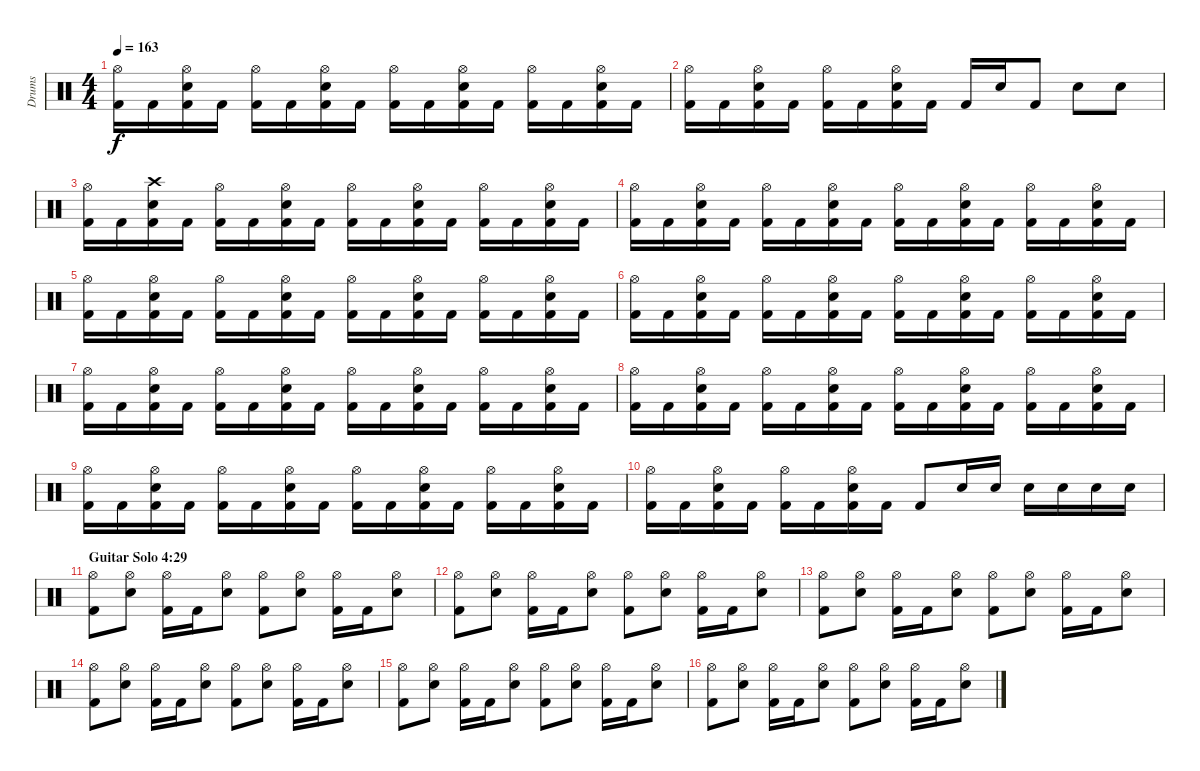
\track ("Drums" "Drums") {instrument percussion}
\staff {score}
\articulation defaults
\ts (4 4)
\tempo 163
\clef neutral
\ks c
("Hi-Hat (open)" "Kick (hit) 2").16{dy f} "Kick (hit) 2".16 ("Hi-Hat (open)" "Kick (hit) 2" "Snare (hit) 2").16 "Kick (hit) 2".16 ("Hi-Hat (open)" "Kick (hit) 2").16 "Kick (hit) 2".16 ("Hi-Hat (open)" "Kick (hit) 2" "Snare (hit) 2").16 "Kick (hit) 2".16 ("Hi-Hat (open)" "Kick (hit) 2").16 "Kick (hit) 2".16 ("Hi-Hat (open)" "Kick (hit) 2" "Snare (hit) 2").16 "Kick (hit) 2".16 ("Hi-Hat (open)" "Kick (hit) 2").16 "Kick (hit) 2".16 ("Hi-Hat (open)" "Kick (hit) 2" "Snare (hit) 2").16 "Kick (hit) 2".16 |
("Hi-Hat (open)" "Kick (hit) 2").16 "Kick (hit) 2".16 ("Hi-Hat (open)" "Kick (hit) 2" "Snare (hit) 2").16 "Kick (hit) 2".16 ("Hi-Hat (open)" "Kick (hit) 2").16 "Kick (hit) 2".16 ("Hi-Hat (open)" "Kick (hit) 2" "Snare (hit) 2").16 "Kick (hit) 2".16 "Kick (hit) 2".16 "Snare (hit) 2".16 "Kick (hit) 2".8 "Snare (hit) 2".8 "Snare (hit) 2".8 |
("Hi-Hat (open)" "Kick (hit) 2").16 "Kick (hit) 2".16 ("Crash high (hit)" "Kick (hit) 2" "Snare (hit) 2").16 "Kick (hit) 2".16 ("Hi-Hat (open)" "Kick (hit) 2").16 "Kick (hit) 2".16 ("Hi-Hat (open)" "Kick (hit) 2" "Snare (hit) 2").16 "Kick (hit) 2".16 ("Hi-Hat (open)" "Kick (hit) 2").16 "Kick (hit) 2".16 ("Hi-Hat (open)" "Kick (hit) 2" "Snare (hit) 2").16 "Kick (hit) 2".16 ("Hi-Hat (open)" "Kick (hit) 2").16 "Kick (hit) 2".16 ("Hi-Hat (open)" "Kick (hit) 2" "Snare (hit) 2").16 "Kick (hit) 2".16 |
("Hi-Hat (open)" "Kick (hit) 2").16 "Kick (hit) 2".16 ("Hi-Hat (open)" "Kick (hit) 2" "Snare (hit) 2").16 "Kick (hit) 2".16 ("Hi-Hat (open)" "Kick (hit) 2").16 "Kick (hit) 2".16 ("Hi-Hat (open)" "Kick (hit) 2" "Snare (hit) 2").16 "Kick (hit) 2".16 ("Hi-Hat (open)" "Kick (hit) 2").16 "Kick (hit) 2".16 ("Hi-Hat (open)" "Kick (hit) 2" "Snare (hit) 2").16 "Kick (hit) 2".16 ("Hi-Hat (open)" "Kick (hit) 2").16 "Kick (hit) 2".16 ("Hi-Hat (open)" "Kick (hit) 2" "Snare (hit) 2").16 "Kick (hit) 2".16 |
("Hi-Hat (open)" "Kick (hit) 2").16 "Kick (hit) 2".16 ("Hi-Hat (open)" "Kick (hit) 2" "Snare (hit) 2").16 "Kick (hit) 2".16 ("Hi-Hat (open)" "Kick (hit) 2").16 "Kick (hit) 2".16 ("Hi-Hat (open)" "Kick (hit) 2" "Snare (hit) 2").16 "Kick (hit) 2".16 ("Hi-Hat (open)" "Kick (hit) 2").16 "Kick (hit) 2".16 ("Hi-Hat (open)" "Kick (hit) 2" "Snare (hit) 2").16 "Kick (hit) 2".16 ("Hi-Hat (open)" "Kick (hit) 2").16 "Kick (hit) 2".16 ("Hi-Hat (open)" "Kick (hit) 2" "Snare (hit) 2").16 "Kick (hit) 2".16 |
("Hi-Hat (open)" "Kick (hit) 2").16 "Kick (hit) 2".16 ("Hi-Hat (open)" "Kick (hit) 2" "Snare (hit) 2").16 "Kick (hit) 2".16 ("Hi-Hat (open)" "Kick (hit) 2").16 "Kick (hit) 2".16 ("Hi-Hat (open)" "Kick (hit) 2" "Snare (hit) 2").16 "Kick (hit) 2".16 ("Hi-Hat (open)" "Kick (hit) 2").16 "Kick (hit) 2".16 ("Hi-Hat (open)" "Kick (hit) 2" "Snare (hit) 2").16 "Kick (hit) 2".16 ("Hi-Hat (open)" "Kick (hit) 2").16 "Kick (hit) 2".16 ("Hi-Hat (open)" "Kick (hit) 2" "Snare (hit) 2").16 "Kick (hit) 2".16 |
("Hi-Hat (open)" "Kick (hit) 2").16 "Kick (hit) 2".16 ("Hi-Hat (open)" "Kick (hit) 2" "Snare (hit) 2").16 "Kick (hit) 2".16 ("Hi-Hat (open)" "Kick (hit) 2").16 "Kick (hit) 2".16 ("Hi-Hat (open)" "Kick (hit) 2" "Snare (hit) 2").16 "Kick (hit) 2".16 ("Hi-Hat (open)" "Kick (hit) 2").16 "Kick (hit) 2".16 ("Hi-Hat (open)" "Kick (hit) 2" "Snare (hit) 2").16 "Kick (hit) 2".16 ("Hi-Hat (open)" "Kick (hit) 2").16 "Kick (hit) 2".16 ("Hi-Hat (open)" "Kick (hit) 2" "Snare (hit) 2").16 "Kick (hit) 2".16 |
("Hi-Hat (open)" "Kick (hit) 2").16 "Kick (hit) 2".16 ("Hi-Hat (open)" "Kick (hit) 2" "Snare (hit) 2").16 "Kick (hit) 2".16 ("Hi-Hat (open)" "Kick (hit) 2").16 "Kick (hit) 2".16 ("Hi-Hat (open)" "Kick (hit) 2" "Snare (hit) 2").16 "Kick (hit) 2".16 ("Hi-Hat (open)" "Kick (hit) 2").16 "Kick (hit) 2".16 ("Hi-Hat (open)" "Kick (hit) 2" "Snare (hit) 2").16 "Kick (hit) 2".16 ("Hi-Hat (open)" "Kick (hit) 2").16 "Kick (hit) 2".16 ("Hi-Hat (open)" "Kick (hit) 2" "Snare (hit) 2").16 "Kick (hit) 2".16 |
("Hi-Hat (open)" "Kick (hit) 2").16 "Kick (hit) 2".16 ("Hi-Hat (open)" "Kick (hit) 2" "Snare (hit) 2").16 "Kick (hit) 2".16 ("Hi-Hat (open)" "Kick (hit) 2").16 "Kick (hit) 2".16 ("Hi-Hat (open)" "Kick (hit) 2" "Snare (hit) 2").16 "Kick (hit) 2".16 ("Hi-Hat (open)" "Kick (hit) 2").16 "Kick (hit) 2".16 ("Hi-Hat (open)" "Kick (hit) 2" "Snare (hit) 2").16 "Kick (hit) 2".16 ("Hi-Hat (open)" "Kick (hit) 2").16 "Kick (hit) 2".16 ("Hi-Hat (open)" "Kick (hit) 2" "Snare (hit) 2").16 "Kick (hit) 2".16 |
("Hi-Hat (open)" "Kick (hit) 2").16 "Kick (hit) 2".16 ("Hi-Hat (open)" "Kick (hit) 2" "Snare (hit) 2").16 "Kick (hit) 2".16 ("Hi-Hat (open)" "Kick (hit) 2").16 "Kick (hit) 2".16 ("Hi-Hat (open)" "Kick (hit) 2" "Snare (hit) 2").16 "Kick (hit) 2".16 "Kick (hit) 2".8 "Snare (hit) 2".16 "Snare (hit) 2".16 "Snare (hit) 2".16 "Snare (hit) 2".16 "Snare (hit) 2".16 "Snare (hit) 2".16 |
\section ("" "Guitar Solo 4:29")
("Hi-Hat (open)" "Kick (hit) 2").8 ("Hi-Hat (open)" "Snare (hit) 2").8 ("Hi-Hat (open)" "Kick (hit) 2").16 "Kick (hit) 2".16 ("Hi-Hat (open)" "Snare (hit) 2").8 ("Hi-Hat (open)" "Kick (hit) 2").8 ("Hi-Hat (open)" "Snare (hit) 2").8 ("Hi-Hat (open)" "Kick (hit) 2").16 "Kick (hit) 2".16 ("Hi-Hat (open)" "Snare (hit) 2").8 |
("Hi-Hat (open)" "Kick (hit) 2").8 ("Hi-Hat (open)" "Snare (hit) 2").8 ("Hi-Hat (open)" "Kick (hit) 2").16 "Kick (hit) 2".16 ("Hi-Hat (open)" "Snare (hit) 2").8 ("Hi-Hat (open)" "Kick (hit) 2").8 ("Hi-Hat (open)" "Snare (hit) 2").8 ("Hi-Hat (open)" "Kick (hit) 2").16 "Kick (hit) 2".16 ("Hi-Hat (open)" "Snare (hit) 2").8 |
("Hi-Hat (open)" "Kick (hit) 2").8 ("Hi-Hat (open)" "Snare (hit) 2").8 ("Hi-Hat (open)" "Kick (hit) 2").16 "Kick (hit) 2".16 ("Hi-Hat (open)" "Snare (hit) 2").8 ("Hi-Hat (open)" "Kick (hit) 2").8 ("Hi-Hat (open)" "Snare (hit) 2").8 ("Hi-Hat (open)" "Kick (hit) 2").16 "Kick (hit) 2".16 ("Hi-Hat (open)" "Snare (hit) 2").8 |
("Hi-Hat (open)" "Kick (hit) 2").8 ("Hi-Hat (open)" "Snare (hit) 2").8 ("Hi-Hat (open)" "Kick (hit) 2").16 "Kick (hit) 2".16 ("Hi-Hat (open)" "Snare (hit) 2").8 ("Hi-Hat (open)" "Kick (hit) 2").8 ("Hi-Hat (open)" "Snare (hit) 2").8 ("Hi-Hat (open)" "Kick (hit) 2").16 "Kick (hit) 2".16 ("Hi-Hat (open)" "Snare (hit) 2").8 |
("Hi-Hat (open)" "Kick (hit) 2").8 ("Hi-Hat (open)" "Snare (hit) 2").8 ("Hi-Hat (open)" "Kick (hit) 2").16 "Kick (hit) 2".16 ("Hi-Hat (open)" "Snare (hit) 2").8 ("Hi-Hat (open)" "Kick (hit) 2").8 ("Hi-Hat (open)" "Snare (hit) 2").8 ("Hi-Hat (open)" "Kick (hit) 2").16 "Kick (hit) 2".16 ("Hi-Hat (open)" "Snare (hit) 2").8 |
("Hi-Hat (open)" "Kick (hit) 2").8 ("Hi-Hat (open)" "Snare (hit) 2").8 ("Hi-Hat (open)" "Kick (hit) 2").16 "Kick (hit) 2".16 ("Hi-Hat (open)" "Snare (hit) 2").8 ("Hi-Hat (open)" "Kick (hit) 2").8 ("Hi-Hat (open)" "Snare (hit) 2").8 ("Hi-Hat (open)" "Kick (hit) 2").16 "Kick (hit) 2".16 ("Hi-Hat (open)" "Snare (hit) 2").8
